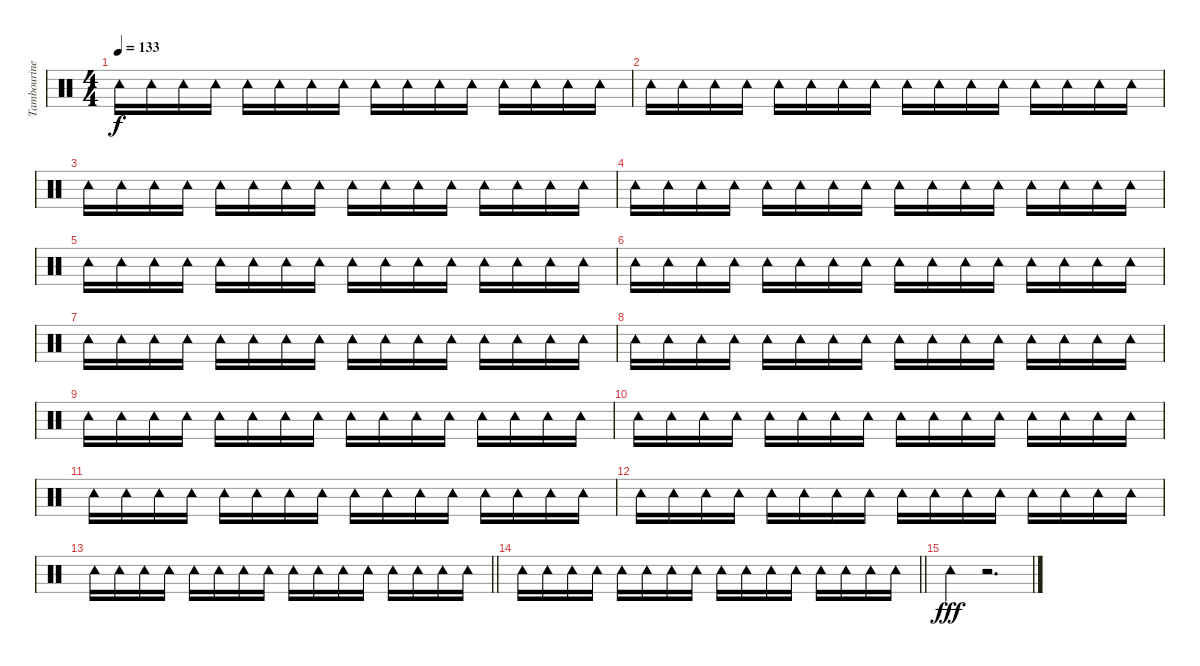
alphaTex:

\track ("Tambourine" "Tambourine") {instrument percussion}
\staff {score}
\articulation defaults
\ts (4 4)
\tempo 133
\clef neutral
\ks c "Tambourine (hit)".16{dy f} "Tambourine (hit)".16 "Tambourine (hit)".16 "Tambourine (hit)".16 "Tambourine (hit)".16 "Tambourine (hit)".16 "Tambourine (hit)".16 "Tambourine (hit)".16 "Tambourine (hit)".16 "Tambourine (hit)".16 "Tambourine (hit)".16 "Tambourine (hit)".16 "Tambourine (hit)".16 "Tambourine (hit)".16 "Tambourine (hit)".16 "Tambourine (hit)".16
|
"Tambourine (hit)".16 "Tambourine (hit)".16 "Tambourine (hit)".16 "Tambourine (hit)".16 "Tambourine (hit)".16 "Tambourine (hit)".16 "Tambourine (hit)".16 "Tambourine (hit)".16 "Tambourine (hit)".16 "Tambourine (hit)".16 "Tambourine (hit)".16 "Tambourine (hit)".16 "Tambourine (hit)".16 "Tambourine (hit)".16 "Tambourine (hit)".16 "Tambourine (hit)".16 |
"Tambourine (hit)".16 "Tambourine (hit)".16 "Tambourine (hit)".16 "Tambourine (hit)".16 "Tambourine (hit)".16 "Tambourine (hit)".16 "Tambourine (hit)".16 "Tambourine (hit)".16 "Tambourine (hit)".16 "Tambourine (hit)".16 "Tambourine (hit)".16 "Tambourine (hit)".16 "Tambourine (hit)".16 "Tambourine (hit)".16 "Tambourine (hit)".16 "Tambourine (hit)".16 |
"Tambourine (hit)".16 "Tambourine (hit)".16 "Tambourine (hit)".16 "Tambourine (hit)".16 "Tambourine (hit)".16 "Tambourine (hit)".16 "Tambourine (hit)".16 "Tambourine (hit)".16 "Tambourine (hit)".16 "Tambourine (hit)".16 "Tambourine (hit)".16 "Tambourine (hit)".16 "Tambourine (hit)".16 "Tambourine (hit)".16 "Tambourine (hit)".16 "Tambourine (hit)".16 |
"Tambourine (hit)".16 "Tambourine (hit)".16 "Tambourine (hit)".16 "Tambourine (hit)".16 "Tambourine (hit)".16 "Tambourine (hit)".16 "Tambourine (hit)".16 "Tambourine (hit)".16 "Tambourine (hit)".16 "Tambourine (hit)".16 "Tambourine (hit)".16 "Tambourine (hit)".16 "Tambourine (hit)".16 "Tambourine (hit)".16 "Tambourine (hit)".16 "Tambourine (hit)".16 |
"Tambourine (hit)".16 "Tambourine (hit)".16 "Tambourine (hit)".16 "Tambourine (hit)".16 "Tambourine (hit)".16 "Tambourine (hit)".16 "Tambourine (hit)".16 "Tambourine (hit)".16 "Tambourine (hit)".16 "Tambourine (hit)".16 "Tambourine (hit)".16 "Tambourine (hit)".16 "Tambourine (hit)".16 "Tambourine (hit)".16 "Tambourine (hit)".16 "Tambourine (hit)".16 |
"Tambourine (hit)".16 "Tambourine (hit)".16 "Tambourine (hit)".16 "Tambourine (hit)".16 "Tambourine (hit)".16 "Tambourine (hit)".16 "Tambourine (hit)".16 "Tambourine (hit)".16 "Tambourine (hit)".16 "Tambourine (hit)".16 "Tambourine (hit)".16 "Tambourine (hit)".16 "Tambourine (hit)".16 "Tambourine (hit)".16 "Tambourine (hit)".16 "Tambourine (hit)".16 |
"Tambourine (hit)".16 "Tambourine (hit)".16 "Tambourine (hit)".16 "Tambourine (hit)".16 "Tambourine (hit)".16 "Tambourine (hit)".16 "Tambourine (hit)".16 "Tambourine (hit)".16 "Tambourine (hit)".16 "Tambourine (hit)".16 "Tambourine (hit)".16 "Tambourine (hit)".16 "Tambourine (hit)".16 "Tambourine (hit)".16 "Tambourine (hit)".16 "Tambourine (hit)".16 |
"Tambourine (hit)".16 "Tambourine (hit)".16 "Tambourine (hit)".16 "Tambourine (hit)".16 "Tambourine (hit)".16 "Tambourine (hit)".16 "Tambourine (hit)".16 "Tambourine (hit)".16 "Tambourine (hit)".16 "Tambourine (hit)".16 "Tambourine (hit)".16 "Tambourine (hit)".16 "Tambourine (hit)".16 "Tambourine (hit)".16 "Tambourine (hit)".16 "Tambourine (hit)".16 |
"Tambourine (hit)".16 "Tambourine (hit)".16 "Tambourine (hit)".16 "Tambourine (hit)".16 "Tambourine (hit)".16 "Tambourine (hit)".16 "Tambourine (hit)".16 "Tambourine (hit)".16 "Tambourine (hit)".16 "Tambourine (hit)".16 "Tambourine (hit)".16 "Tambourine (hit)".16 "Tambourine (hit)".16 "Tambourine (hit)".16 "Tambourine (hit)".16 "Tambourine (hit)".16 |
"Tambourine (hit)".16 "Tambourine (hit)".16 "Tambourine (hit)".16 "Tambourine (hit)".16 "Tambourine (hit)".16 "Tambourine (hit)".16 "Tambourine (hit)".16 "Tambourine (hit)".16 "Tambourine (hit)".16 "Tambourine (hit)".16 "Tambourine (hit)".16 "Tambourine (hit)".16 "Tambourine (hit)".16 "Tambourine (hit)".16 "Tambourine (hit)".16 "Tambourine (hit)".16 |
"Tambourine (hit)".16 "Tambourine (hit)".16 "Tambourine (hit)".16 "Tambourine (hit)".16 "Tambourine (hit)".16 "Tambourine (hit)".16 "Tambourine (hit)".16 "Tambourine (hit)".16 "Tambourine (hit)".16 "Tambourine (hit)".16 "Tambourine (hit)".16 "Tambourine (hit)".16 "Tambourine (hit)".16 "Tambourine (hit)".16 "Tambourine (hit)".16 "Tambourine (hit)".16 |
\barLineRight lightlight "Tambourine (hit)".16 "Tambourine (hit)".16 "Tambourine (hit)".16 "Tambourine (hit)".16 "Tambourine (hit)".16 "Tambourine (hit)".16 "Tambourine (hit)".16 "Tambourine (hit)".16 "Tambourine (hit)".16 "Tambourine (hit)".16 "Tambourine (hit)".16 "Tambourine (hit)".16 "Tambourine (hit)".16 "Tambourine (hit)".16 "Tambourine (hit)".16 "Tambourine (hit)".16
|
\barLineRight lightlight "Tambourine (hit)".16 "Tambourine (hit)".16 "Tambourine (hit)".16 "Tambourine (hit)".16 "Tambourine (hit)".16 "Tambourine (hit)".16 "Tambourine (hit)".16 "Tambourine (hit)".16 "Tambourine (hit)".16 "Tambourine (hit)".16 "Tambourine (hit)".16 "Tambourine (hit)".16 "Tambourine (hit)".16 "Tambourine (hit)".16 "Tambourine (hit)".16 "Tambourine (hit)".16
|
"Tambourine (hit)".4{dy fff} r.2{d}
